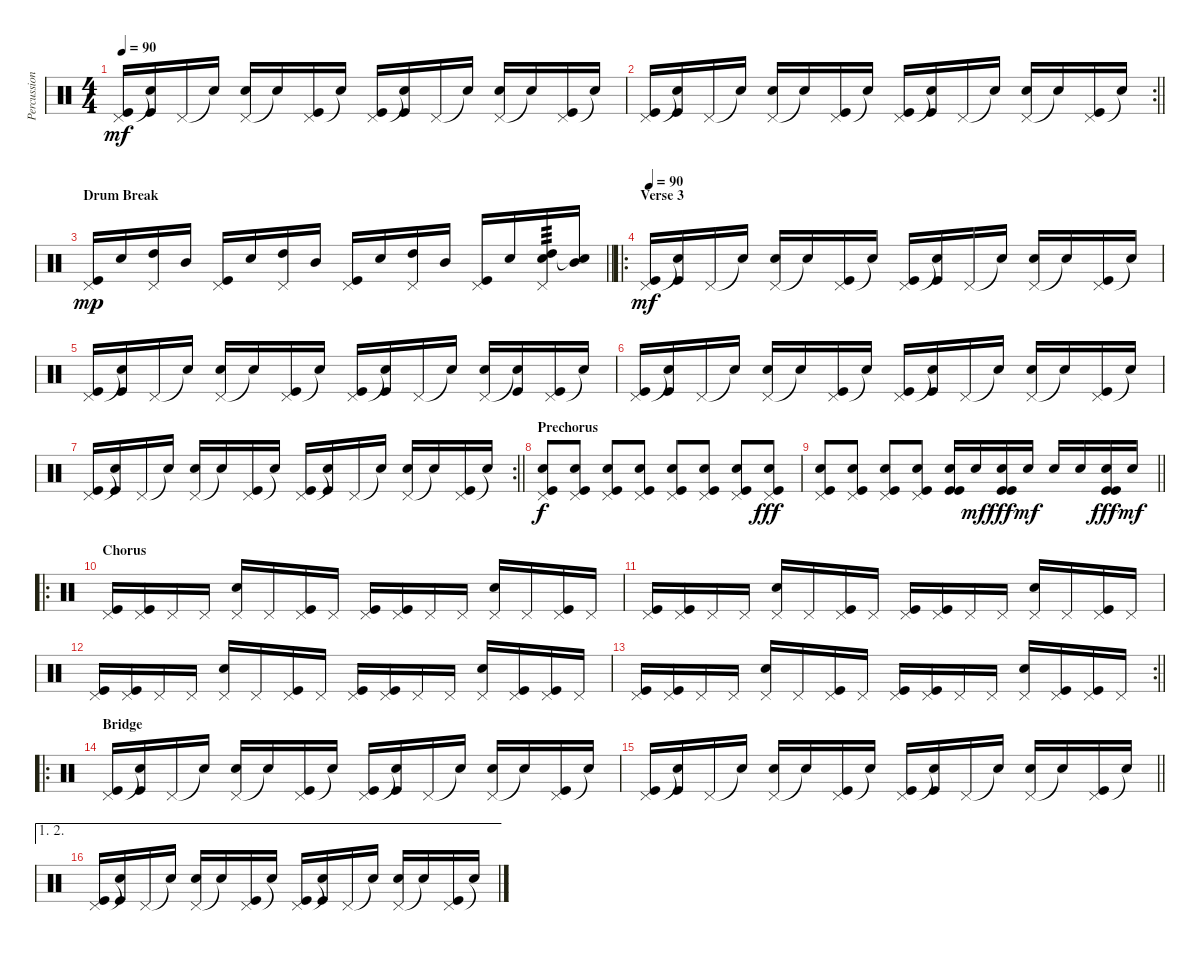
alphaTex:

\track ("Percussion" "Percussion") {instrument percussion}
\staff {score}
\articulation defaults
\ts (4 4)
\tempo 90
\clef neutral
\ks c
("Pedal Hi-Hat (hit)" "Kick (hit)").16{dy mf} ("Snare (hit)"{t} "Kick (hit)").16 "Pedal Hi-Hat (hit)".16 "Snare (hit)"{t}.16 ("Pedal Hi-Hat (hit)" "Electric Snare (hit)").16 "Snare (hit)"{t}.16 ("Pedal Hi-Hat (hit)" "Kick (hit)").16 "Snare (hit)"{t}.16 ("Pedal Hi-Hat (hit)" "Kick (hit)").16 ("Snare (hit)"{t} "Kick (hit)").16 "Pedal Hi-Hat (hit)".16 "Snare (hit)"{t}.16 ("Pedal Hi-Hat (hit)" "Electric Snare (hit)").16 "Snare (hit)"{t}.16 ("Pedal Hi-Hat (hit)" "Kick (hit)").16 "Snare (hit)"{t}.16 |
\rc 2
\barLineRight lightlight
("Pedal Hi-Hat (hit)" "Kick (hit)").16 ("Snare (hit)"{t} "Kick (hit)").16 "Pedal Hi-Hat (hit)".16 "Snare (hit)"{t}.16 ("Pedal Hi-Hat (hit)" "Electric Snare (hit)").16 "Snare (hit)"{t}.16 ("Pedal Hi-Hat (hit)" "Kick (hit)").16 "Snare (hit)"{t}.16 ("Pedal Hi-Hat (hit)" "Kick (hit)").16 ("Snare (hit)"{t} "Kick (hit)").16 "Pedal Hi-Hat (hit)".16 "Snare (hit)"{t}.16 ("Pedal Hi-Hat (hit)" "Electric Snare (hit)").16 "Snare (hit)"{t}.16 ("Pedal Hi-Hat (hit)" "Kick (hit)").16 "Snare (hit)"{t}.16 |
\section ("" "Drum Break")
\barLineRight lightlight
("Pedal Hi-Hat (hit)" "Kick (hit)").16{dy mp} "Electric Snare (hit)".16 ("Pedal Hi-Hat (hit)" "High Tom (hit)").16 "Mid Tom (hit)".16 ("Pedal Hi-Hat (hit)" "Kick (hit)").16 "Electric Snare (hit)".16 ("Pedal Hi-Hat (hit)" "High Tom (hit)").16 "Mid Tom (hit)".16 ("Pedal Hi-Hat (hit)" "Kick (hit)").16 "Electric Snare (hit)".16 ("Pedal Hi-Hat (hit)" "High Tom (hit)").16 "Mid Tom (hit)".16 ("Pedal Hi-Hat (hit)" "Kick (hit)").16 "Electric Snare (hit)".16 ("Pedal Hi-Hat (hit)" "High Tom (hit)" "Electric Snare (hit)").16{tp 3} ("Mid Tom (hit)" "Snare (hit)"{t}).16 |
\ro
\section ("" "Verse 3")
\tempo 90
("Pedal Hi-Hat (hit)" "Kick (hit)").16{dy mf} ("Snare (hit)"{t} "Kick (hit)").16 "Pedal Hi-Hat (hit)".16 "Snare (hit)"{t}.16 ("Pedal Hi-Hat (hit)" "Electric Snare (hit)").16 "Snare (hit)"{t}.16 ("Pedal Hi-Hat (hit)" "Kick (hit)").16 "Snare (hit)"{t}.16 ("Pedal Hi-Hat (hit)" "Kick (hit)").16 ("Snare (hit)"{t} "Kick (hit)").16 "Pedal Hi-Hat (hit)".16 "Snare (hit)"{t}.16 ("Pedal Hi-Hat (hit)" "Electric Snare (hit)").16 "Snare (hit)"{t}.16 ("Pedal Hi-Hat (hit)" "Kick (hit)").16 "Snare (hit)"{t}.16 |
("Pedal Hi-Hat (hit)" "Kick (hit)").16 ("Snare (hit)"{t} "Kick (hit)").16 "Pedal Hi-Hat (hit)".16 "Snare (hit)"{t}.16 ("Pedal Hi-Hat (hit)" "Electric Snare (hit)").16 "Snare (hit)"{t}.16 ("Pedal Hi-Hat (hit)" "Kick (hit)").16 "Snare (hit)"{t}.16 ("Pedal Hi-Hat (hit)" "Kick (hit)").16 ("Snare (hit)"{t} "Kick (hit)").16 "Pedal Hi-Hat (hit)".16 "Snare (hit)"{t}.16 ("Pedal Hi-Hat (hit)" "Electric Snare (hit)").16 ("Snare (hit)"{t} "Kick (hit)").16 ("Pedal Hi-Hat (hit)" "Kick (hit)").16 "Snare (hit)"{t}.16 |
("Pedal Hi-Hat (hit)" "Kick (hit)").16 ("Snare (hit)"{t} "Kick (hit)").16 "Pedal Hi-Hat (hit)".16 "Snare (hit)"{t}.16 ("Pedal Hi-Hat (hit)" "Electric Snare (hit)").16 "Snare (hit)"{t}.16 ("Pedal Hi-Hat (hit)" "Kick (hit)").16 "Snare (hit)"{t}.16 ("Pedal Hi-Hat (hit)" "Kick (hit)").16 ("Snare (hit)"{t} "Kick (hit)").16 "Pedal Hi-Hat (hit)".16 "Snare (hit)"{t}.16 ("Pedal Hi-Hat (hit)" "Electric Snare (hit)").16 "Snare (hit)"{t}.16 ("Pedal Hi-Hat (hit)" "Kick (hit)").16 "Snare (hit)"{t}.16 |
\rc 2
\barLineRight lightlight
("Pedal Hi-Hat (hit)" "Kick (hit)").16 ("Snare (hit)"{t} "Kick (hit)").16 "Pedal Hi-Hat (hit)".16 "Snare (hit)"{t}.16 ("Pedal Hi-Hat (hit)" "Electric Snare (hit)").16 "Snare (hit)"{t}.16 ("Pedal Hi-Hat (hit)" "Kick (hit)").16 "Snare (hit)"{t}.16 ("Pedal Hi-Hat (hit)" "Kick (hit)").16 ("Snare (hit)"{t} "Kick (hit)").16 "Pedal Hi-Hat (hit)".16 "Snare (hit)"{t}.16 ("Pedal Hi-Hat (hit)" "Electric Snare (hit)").16 "Snare (hit)"{t}.16 ("Pedal Hi-Hat (hit)" "Kick (hit)").16 "Snare (hit)"{t}.16 |
\section ("" "Prechorus")
("Pedal Hi-Hat (hit)" "Electric Snare (hit)" "Kick (hit)").8{dy f} ("Pedal Hi-Hat (hit)" "Electric Snare (hit)" "Kick (hit)").8 ("Pedal Hi-Hat (hit)" "Electric Snare (hit)" "Kick (hit)").8 ("Pedal Hi-Hat (hit)" "Electric Snare (hit)" "Kick (hit)").8 ("Pedal Hi-Hat (hit)" "Electric Snare (hit)" "Kick (hit)").8 ("Pedal Hi-Hat (hit)" "Electric Snare (hit)" "Kick (hit)").8 ("Pedal Hi-Hat (hit)" "Electric Snare (hit)" "Kick (hit)").8 ("Pedal Hi-Hat (hit)" "Electric Snare (hit)" "Kick (hit)").8{dy fff} |
\barLineRight lightlight
("Pedal Hi-Hat (hit)" "Electric Snare (hit)" "Kick (hit)").8 ("Pedal Hi-Hat (hit)" "Electric Snare (hit)" "Kick (hit)").8 ("Pedal Hi-Hat (hit)" "Electric Snare (hit)" "Kick (hit)").8 ("Pedal Hi-Hat (hit)" "Electric Snare (hit)" "Kick (hit)").8 ("Electric Snare (hit)" "Kick (hit)" "Kick (hit)").16 "Electric Snare (hit)".16{dy mf} ("Electric Snare (hit)" "Kick (hit)" "Kick (hit)").16{dy fff} "Electric Snare (hit)".16{dy mf} "Electric Snare (hit)".16 "Electric Snare (hit)".16 ("Electric Snare (hit)" "Kick (hit)" "Kick (hit)").16{dy fff} "Electric Snare (hit)".16{dy mf} |
\ro
\section ("" "Chorus")
("Pedal Hi-Hat (hit)" "Kick (hit)").16 ("Pedal Hi-Hat (hit)" "Kick (hit)").16 "Pedal Hi-Hat (hit)".16 "Pedal Hi-Hat (hit)".16 ("Pedal Hi-Hat (hit)" "Electric Snare (hit)").16 "Pedal Hi-Hat (hit)".16 ("Pedal Hi-Hat (hit)" "Kick (hit)").16 "Pedal Hi-Hat (hit)".16 ("Pedal Hi-Hat (hit)" "Kick (hit)").16 ("Pedal Hi-Hat (hit)" "Kick (hit)").16 "Pedal Hi-Hat (hit)".16 "Pedal Hi-Hat (hit)".16 ("Pedal Hi-Hat (hit)" "Electric Snare (hit)").16 "Pedal Hi-Hat (hit)".16 ("Pedal Hi-Hat (hit)" "Kick (hit)").16 "Pedal Hi-Hat (hit)".16 |
("Pedal Hi-Hat (hit)" "Kick (hit)").16 ("Pedal Hi-Hat (hit)" "Kick (hit)").16 "Pedal Hi-Hat (hit)".16 "Pedal Hi-Hat (hit)".16 ("Pedal Hi-Hat (hit)" "Electric Snare (hit)").16 "Pedal Hi-Hat (hit)".16 ("Pedal Hi-Hat (hit)" "Kick (hit)").16 "Pedal Hi-Hat (hit)".16 ("Pedal Hi-Hat (hit)" "Kick (hit)").16 ("Pedal Hi-Hat (hit)" "Kick (hit)").16 "Pedal Hi-Hat (hit)".16 "Pedal Hi-Hat (hit)".16 ("Pedal Hi-Hat (hit)" "Electric Snare (hit)").16 "Pedal Hi-Hat (hit)".16 ("Pedal Hi-Hat (hit)" "Kick (hit)").16 "Pedal Hi-Hat (hit)".16 |
("Pedal Hi-Hat (hit)" "Kick (hit)").16 ("Pedal Hi-Hat (hit)" "Kick (hit)").16 "Pedal Hi-Hat (hit)".16 "Pedal Hi-Hat (hit)".16 ("Pedal Hi-Hat (hit)" "Electric Snare (hit)").16 "Pedal Hi-Hat (hit)".16 ("Pedal Hi-Hat (hit)" "Kick (hit)").16 "Pedal Hi-Hat (hit)".16 ("Pedal Hi-Hat (hit)" "Kick (hit)").16 ("Pedal Hi-Hat (hit)" "Kick (hit)").16 "Pedal Hi-Hat (hit)".16 "Pedal Hi-Hat (hit)".16 ("Pedal Hi-Hat (hit)" "Electric Snare (hit)").16 ("Pedal Hi-Hat (hit)" "Kick (hit)").16 ("Pedal Hi-Hat (hit)" "Kick (hit)").16 "Pedal Hi-Hat (hit)".16 |
\rc 2
\barLineRight lightlight
("Pedal Hi-Hat (hit)" "Kick (hit)").16 ("Pedal Hi-Hat (hit)" "Kick (hit)").16 "Pedal Hi-Hat (hit)".16 "Pedal Hi-Hat (hit)".16 ("Pedal Hi-Hat (hit)" "Electric Snare (hit)").16 "Pedal Hi-Hat (hit)".16 ("Pedal Hi-Hat (hit)" "Kick (hit)").16 "Pedal Hi-Hat (hit)".16 ("Pedal Hi-Hat (hit)" "Kick (hit)").16 ("Pedal Hi-Hat (hit)" "Kick (hit)").16 "Pedal Hi-Hat (hit)".16 "Pedal Hi-Hat (hit)".16 ("Pedal Hi-Hat (hit)" "Electric Snare (hit)").16 ("Pedal Hi-Hat (hit)" "Kick (hit)").16 ("Pedal Hi-Hat (hit)" "Kick (hit)").16 "Pedal Hi-Hat (hit)".16 |
\ro
\section ("" "Bridge")
("Pedal Hi-Hat (hit)" "Kick (hit)").16 ("Snare (hit)"{t} "Kick (hit)").16 "Pedal Hi-Hat (hit)".16 "Snare (hit)"{t}.16 ("Pedal Hi-Hat (hit)" "Electric Snare (hit)").16 "Snare (hit)"{t}.16 ("Pedal Hi-Hat (hit)" "Kick (hit)").16 "Snare (hit)"{t}.16 ("Pedal Hi-Hat (hit)" "Kick (hit)").16 ("Snare (hit)"{t} "Kick (hit)").16 "Pedal Hi-Hat (hit)".16 "Snare (hit)"{t}.16 ("Pedal Hi-Hat (hit)" "Electric Snare (hit)").16 "Snare (hit)"{t}.16 ("Pedal Hi-Hat (hit)" "Kick (hit)").16 "Snare (hit)"{t}.16 |
\barLineRight lightlight
("Pedal Hi-Hat (hit)" "Kick (hit)").16 ("Snare (hit)"{t} "Kick (hit)").16 "Pedal Hi-Hat (hit)".16 "Snare (hit)"{t}.16 ("Pedal Hi-Hat (hit)" "Electric Snare (hit)").16 "Snare (hit)"{t}.16 ("Pedal Hi-Hat (hit)" "Kick (hit)").16 "Snare (hit)"{t}.16 ("Pedal Hi-Hat (hit)" "Kick (hit)").16 ("Snare (hit)"{t} "Kick (hit)").16 "Pedal Hi-Hat (hit)".16 "Snare (hit)"{t}.16 ("Pedal Hi-Hat (hit)" "Electric Snare (hit)").16 "Snare (hit)"{t}.16 ("Pedal Hi-Hat (hit)" "Kick (hit)").16 "Snare (hit)"{t}.16 |
\ae (1 2)
("Pedal Hi-Hat (hit)" "Kick (hit)").16 ("Snare (hit)"{t} "Kick (hit)").16 "Pedal Hi-Hat (hit)".16 "Snare (hit)"{t}.16 ("Pedal Hi-Hat (hit)" "Electric Snare (hit)").16 "Snare (hit)"{t}.16 ("Pedal Hi-Hat (hit)" "Kick (hit)").16 "Snare (hit)"{t}.16 ("Pedal Hi-Hat (hit)" "Kick (hit)").16 ("Snare (hit)"{t} "Kick (hit)").16 "Pedal Hi-Hat (hit)".16 "Snare (hit)"{t}.16 ("Pedal Hi-Hat (hit)" "Electric Snare (hit)").16 "Snare (hit)"{t}.16 ("Pedal Hi-Hat (hit)" "Kick (hit)").16 "Snare (hit)"{t}.16
